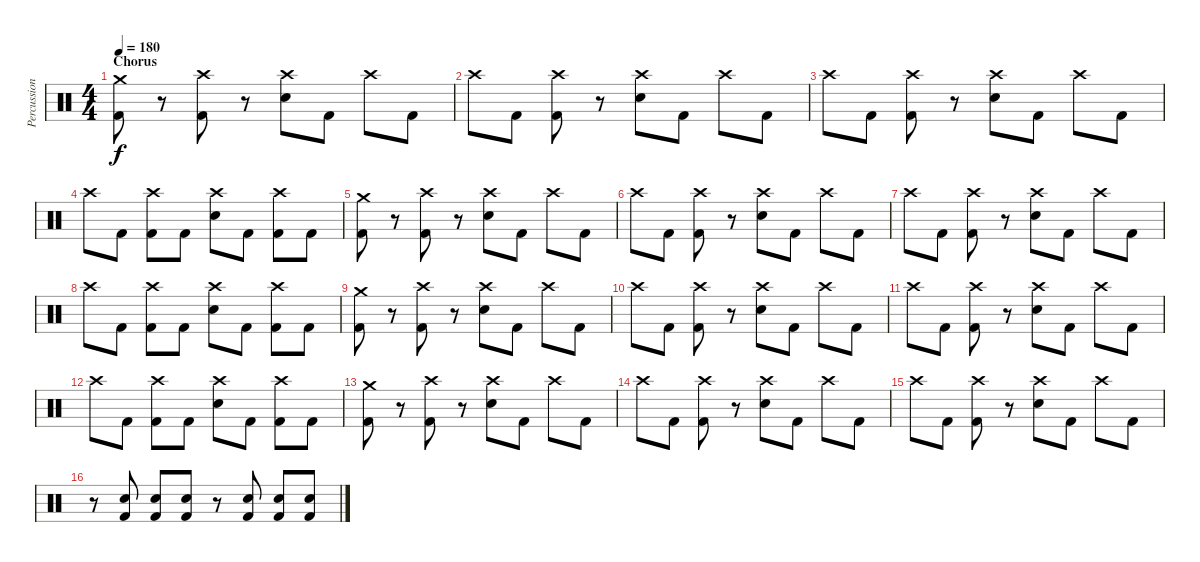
\track ("Percussion" "Percussion") {instrument percussion}
\staff {score}
\articulation defaults
\ts (4 4)
\section ("" "Chorus")
\tempo 180
\clef neutral
\ks c
("Crash medium (hit)" "Kick (hit) 2").8{dy f} r.8 ("Crash high (hit)" "Kick (hit) 2").8 r.8 ("Crash high (hit)" "Electric Snare (hit)").8 "Kick (hit) 2".8 "Crash high (hit)".8 "Kick (hit) 2".8 |
"Crash high (hit)".8 "Kick (hit) 2".8 ("Crash high (hit)" "Kick (hit) 2").8 r.8 ("Crash high (hit)" "Electric Snare (hit)").8 "Kick (hit) 2".8 "Crash high (hit)".8 "Kick (hit) 2".8 |
"Crash high (hit)".8 "Kick (hit) 2".8 ("Crash high (hit)" "Kick (hit) 2").8 r.8 ("Crash high (hit)" "Electric Snare (hit)").8 "Kick (hit) 2".8 "Crash high (hit)".8 "Kick (hit) 2".8 |
"Crash high (hit)".8 "Kick (hit) 2".8 ("Crash high (hit)" "Kick (hit) 2").8 "Kick (hit) 2".8 ("Crash high (hit)" "Electric Snare (hit)").8 "Kick (hit) 2".8 ("Crash high (hit)" "Kick (hit) 2").8 "Kick (hit) 2".8 |
("Crash medium (hit)" "Kick (hit) 2").8 r.8 ("Crash high (hit)" "Kick (hit) 2").8 r.8 ("Crash high (hit)" "Electric Snare (hit)").8 "Kick (hit) 2".8 "Crash high (hit)".8 "Kick (hit) 2".8 |
"Crash high (hit)".8 "Kick (hit) 2".8 ("Crash high (hit)" "Kick (hit) 2").8 r.8 ("Crash high (hit)" "Electric Snare (hit)").8 "Kick (hit) 2".8 "Crash high (hit)".8 "Kick (hit) 2".8 |
"Crash high (hit)".8 "Kick (hit) 2".8 ("Crash high (hit)" "Kick (hit) 2").8 r.8 ("Crash high (hit)" "Electric Snare (hit)").8 "Kick (hit) 2".8 "Crash high (hit)".8 "Kick (hit) 2".8 |
"Crash high (hit)".8 "Kick (hit) 2".8 ("Crash high (hit)" "Kick (hit) 2").8 "Kick (hit) 2".8 ("Crash high (hit)" "Electric Snare (hit)").8 "Kick (hit) 2".8 ("Crash high (hit)" "Kick (hit) 2").8 "Kick (hit) 2".8 |
("Crash medium (hit)" "Kick (hit) 2").8 r.8 ("Crash high (hit)" "Kick (hit) 2").8 r.8 ("Crash high (hit)" "Electric Snare (hit)").8 "Kick (hit) 2".8 "Crash high (hit)".8 "Kick (hit) 2".8 |
"Crash high (hit)".8 "Kick (hit) 2".8 ("Crash high (hit)" "Kick (hit) 2").8 r.8 ("Crash high (hit)" "Electric Snare (hit)").8 "Kick (hit) 2".8 "Crash high (hit)".8 "Kick (hit) 2".8 |
"Crash high (hit)".8 "Kick (hit) 2".8 ("Crash high (hit)" "Kick (hit) 2").8 r.8 ("Crash high (hit)" "Electric Snare (hit)").8 "Kick (hit) 2".8 "Crash high (hit)".8 "Kick (hit) 2".8 |
"Crash high (hit)".8 "Kick (hit) 2".8 ("Crash high (hit)" "Kick (hit) 2").8 "Kick (hit) 2".8 ("Crash high (hit)" "Electric Snare (hit)").8 "Kick (hit) 2".8 ("Crash high (hit)" "Kick (hit) 2").8 "Kick (hit) 2".8 |
("Crash medium (hit)" "Kick (hit) 2").8 r.8 ("Crash high (hit)" "Kick (hit) 2").8 r.8 ("Crash high (hit)" "Electric Snare (hit)").8 "Kick (hit) 2".8 "Crash high (hit)".8 "Kick (hit) 2".8 |
"Crash high (hit)".8 "Kick (hit) 2".8 ("Crash high (hit)" "Kick (hit) 2").8 r.8 ("Crash high (hit)" "Electric Snare (hit)").8 "Kick (hit) 2".8 "Crash high (hit)".8 "Kick (hit) 2".8 |
"Crash high (hit)".8 "Kick (hit) 2".8 ("Crash high (hit)" "Kick (hit) 2").8 r.8 ("Crash high (hit)" "Electric Snare (hit)").8 "Kick (hit) 2".8 "Crash high (hit)".8 "Kick (hit) 2".8 |
r.8 ("Electric Snare (hit)" "Kick (hit) 2").8 ("Electric Snare (hit)" "Kick (hit) 2").8 ("Electric Snare (hit)" "Kick (hit) 2").8 r.8 ("Electric Snare (hit)" "Kick (hit) 2").8 ("Electric Snare (hit)" "Kick (hit) 2").8 ("Electric Snare (hit)" "Kick (hit) 2").8
